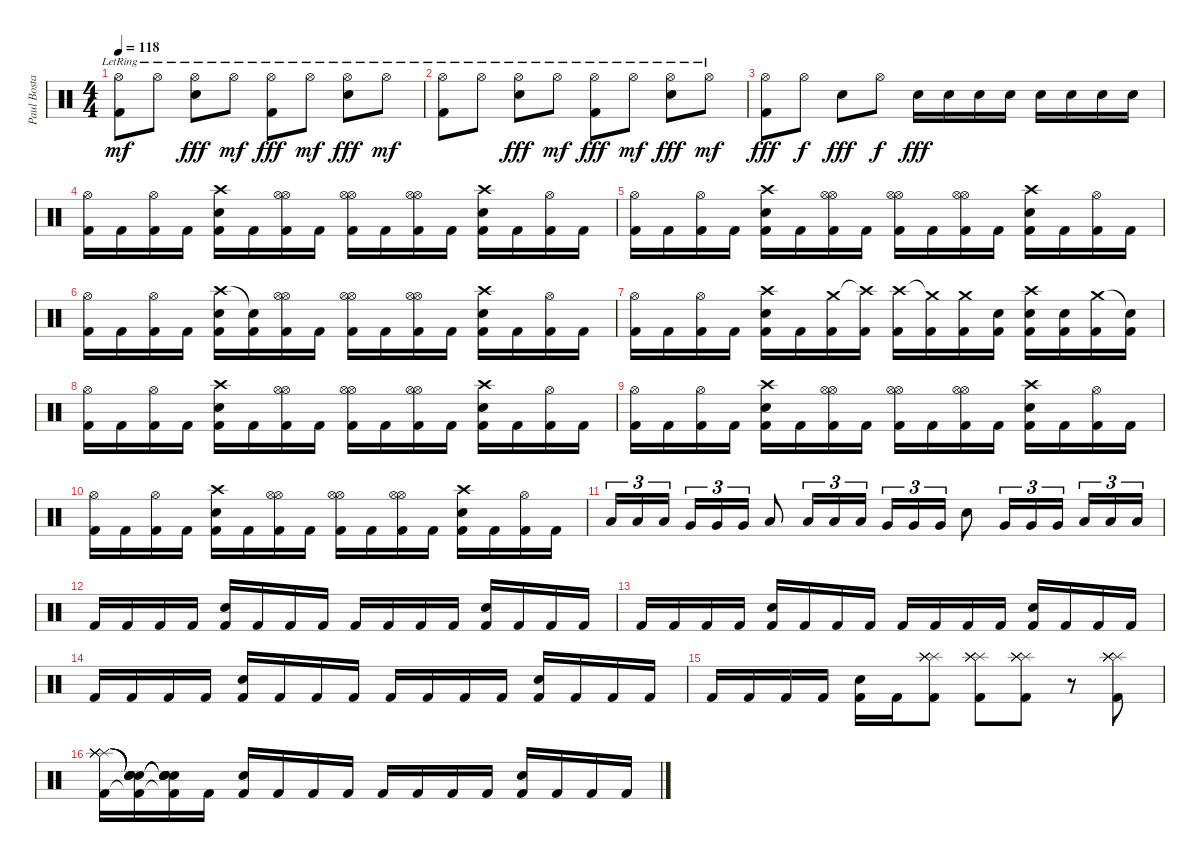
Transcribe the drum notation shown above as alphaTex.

\track ("Paul Bostaph" "Paul Bosta") {instrument percussion}
\staff {score}
\articulation defaults
\ts (4 4)
\tempo 118
\clef neutral
\ks c
("Kick (hit) 2" "Hi-Hat (open)"{lr}).8{dy mf} "Hi-Hat (open)"{lr}.8 ("Hi-Hat (open)"{lr} "Snare (hit) 2").8{dy fff} "Hi-Hat (open)"{lr}.8{dy mf} ("Hi-Hat (open)"{lr} "Kick (hit) 2").8{dy fff} "Hi-Hat (open)"{lr}.8{dy mf} ("Hi-Hat (open)"{lr} "Snare (hit) 2").8{dy fff} "Hi-Hat (open)"{lr}.8{dy mf} |
("Kick (hit) 2" "Hi-Hat (open)"{lr}).8 "Hi-Hat (open)"{lr}.8 ("Hi-Hat (open)"{lr} "Snare (hit) 2").8{dy fff} "Hi-Hat (open)"{lr}.8{dy mf} ("Hi-Hat (open)"{lr} "Kick (hit) 2").8{dy fff} "Hi-Hat (open)"{lr}.8{dy mf} ("Hi-Hat (open)"{lr} "Snare (hit) 2").8{dy fff} "Hi-Hat (open)"{lr}.8{dy mf} |
("Hi-Hat (open)" "Kick (hit) 2").8{dy fff} "Hi-Hat (open)".8{dy f} "Snare (hit) 2".8{dy fff} "Hi-Hat (open)".8{dy f} "Snare (hit) 2".16{dy fff} "Snare (hit) 2".16 "Snare (hit) 2".16 "Snare (hit) 2".16 "Snare (hit) 2".16 "Snare (hit) 2".16 "Snare (hit) 2".16 "Snare (hit) 2".16 |
("Hi-Hat (open)" "Kick (hit) 2").16 "Kick (hit) 2".16 ("Hi-Hat (open)" "Kick (hit) 2").16 "Kick (hit) 2".16 ("Crash high (hit)" "Snare (hit) 2" "Kick (hit) 2").16 "Kick (hit) 2".16 ("Hi-Hat (open)" "Hi-Hat (open)" "Kick (hit) 2").16 "Kick (hit) 2".16 ("Hi-Hat (open)" "Hi-Hat (open)" "Kick (hit) 2").16 "Kick (hit) 2".16 ("Hi-Hat (open)" "Hi-Hat (open)" "Kick (hit) 2").16 "Kick (hit) 2".16 ("Crash high (hit)" "Snare (hit) 2" "Kick (hit) 2").16 "Kick (hit) 2".16 ("Hi-Hat (open)" "Kick (hit) 2").16 "Kick (hit) 2".16 |
("Hi-Hat (open)" "Kick (hit) 2").16 "Kick (hit) 2".16 ("Hi-Hat (open)" "Kick (hit) 2").16 "Kick (hit) 2".16 ("Crash high (hit)" "Snare (hit) 2" "Kick (hit) 2").16 "Kick (hit) 2".16 ("Hi-Hat (open)" "Hi-Hat (open)" "Kick (hit) 2").16 "Kick (hit) 2".16 ("Hi-Hat (open)" "Hi-Hat (open)" "Kick (hit) 2").16 "Kick (hit) 2".16 ("Hi-Hat (open)" "Hi-Hat (open)" "Kick (hit) 2").16 "Kick (hit) 2".16 ("Crash high (hit)" "Snare (hit) 2" "Kick (hit) 2").16 "Kick (hit) 2".16 ("Hi-Hat (open)" "Kick (hit) 2").16 "Kick (hit) 2".16 |
("Hi-Hat (open)" "Kick (hit) 2").16 "Kick (hit) 2".16 ("Hi-Hat (open)" "Kick (hit) 2").16 "Kick (hit) 2".16 ("Crash high (hit)" "Snare (hit) 2" "Kick (hit) 2").16 ("Snare (hit)"{t} "Kick (hit) 2").16 ("Hi-Hat (open)" "Hi-Hat (open)" "Kick (hit) 2").16 "Kick (hit) 2".16 ("Hi-Hat (open)" "Hi-Hat (open)" "Kick (hit) 2").16 "Kick (hit) 2".16 ("Hi-Hat (open)" "Hi-Hat (open)" "Kick (hit) 2").16 "Kick (hit) 2".16 ("Crash high (hit)" "Snare (hit) 2" "Kick (hit) 2").16 "Kick (hit) 2".16 ("Hi-Hat (open)" "Kick (hit) 2").16 "Kick (hit) 2".16 |
("Hi-Hat (open)" "Kick (hit) 2").16 "Kick (hit) 2".16 ("Hi-Hat (open)" "Kick (hit) 2").16 "Kick (hit) 2".16 ("Crash high (hit)" "Snare (hit) 2" "Kick (hit) 2").16 "Kick (hit) 2".16 ("Crash medium (hit)" "Kick (hit) 2").16 ("Crash high (hit)"{t} "Kick (hit) 2").16 ("Crash high (hit)" "Kick (hit) 2").16 ("Crash medium (hit)"{t} "Kick (hit) 2").16 ("Crash medium (hit)" "Kick (hit) 2").16 ("Snare (hit) 2" "Kick (hit) 2").16 ("Crash high (hit)" "Snare (hit) 2" "Kick (hit) 2").16 ("Snare (hit) 2" "Kick (hit) 2").16 ("Crash medium (hit)" "Kick (hit) 2").16 ("Snare (hit)"{t} "Kick (hit) 2").16 |
("Hi-Hat (open)" "Kick (hit) 2").16 "Kick (hit) 2".16 ("Hi-Hat (open)" "Kick (hit) 2").16 "Kick (hit) 2".16 ("Crash high (hit)" "Snare (hit) 2" "Kick (hit) 2").16 "Kick (hit) 2".16 ("Hi-Hat (open)" "Hi-Hat (open)" "Kick (hit) 2").16 "Kick (hit) 2".16 ("Hi-Hat (open)" "Hi-Hat (open)" "Kick (hit) 2").16 "Kick (hit) 2".16 ("Hi-Hat (open)" "Hi-Hat (open)" "Kick (hit) 2").16 "Kick (hit) 2".16 ("Crash high (hit)" "Snare (hit) 2" "Kick (hit) 2").16 "Kick (hit) 2".16 ("Hi-Hat (open)" "Kick (hit) 2").16 "Kick (hit) 2".16 |
("Hi-Hat (open)" "Kick (hit) 2").16 "Kick (hit) 2".16 ("Hi-Hat (open)" "Kick (hit) 2").16 "Kick (hit) 2".16 ("Crash high (hit)" "Snare (hit) 2" "Kick (hit) 2").16 "Kick (hit) 2".16 ("Hi-Hat (open)" "Hi-Hat (open)" "Kick (hit) 2").16 "Kick (hit) 2".16 ("Hi-Hat (open)" "Hi-Hat (open)" "Kick (hit) 2").16 "Kick (hit) 2".16 ("Hi-Hat (open)" "Hi-Hat (open)" "Kick (hit) 2").16 "Kick (hit) 2".16 ("Crash high (hit)" "Snare (hit) 2" "Kick (hit) 2").16 "Kick (hit) 2".16 ("Hi-Hat (open)" "Kick (hit) 2").16 "Kick (hit) 2".16 |
("Hi-Hat (open)" "Kick (hit) 2").16 "Kick (hit) 2".16 ("Hi-Hat (open)" "Kick (hit) 2").16 "Kick (hit) 2".16 ("Crash high (hit)" "Snare (hit) 2" "Kick (hit) 2").16 "Kick (hit) 2".16 ("Hi-Hat (open)" "Hi-Hat (open)" "Kick (hit) 2").16 "Kick (hit) 2".16 ("Hi-Hat (open)" "Hi-Hat (open)" "Kick (hit) 2").16 "Kick (hit) 2".16 ("Hi-Hat (open)" "Hi-Hat (open)" "Kick (hit) 2").16 "Kick (hit) 2".16 ("Crash high (hit)" "Snare (hit) 2" "Kick (hit) 2").16 "Kick (hit) 2".16 ("Hi-Hat (open)" "Kick (hit) 2").16 "Kick (hit) 2".16 |
"Low Floor Tom (hit)".16{tu (3 2)} "Low Floor Tom (hit)".16{tu (3 2)} "Low Floor Tom (hit)".16{tu (3 2)} "Very Low Tom (hit)".16{tu (3 2)} "Very Low Tom (hit)".16{tu (3 2)} "Very Low Tom (hit)".16{tu (3 2)} "Low Tom (hit)".8 "Low Floor Tom (hit)".16{tu (3 2)} "Low Floor Tom (hit)".16{tu (3 2)} "Low Floor Tom (hit)".16{tu (3 2)} "Very Low Tom (hit)".16{tu (3 2)} "Very Low Tom (hit)".16{tu (3 2)} "Very Low Tom (hit)".16{tu (3 2)} "Snare (hit) 2".8 "Very Low Tom (hit)".16{tu (3 2)} "Very Low Tom (hit)".16{tu (3 2)} "Very Low Tom (hit)".16{tu (3 2)} "Low Floor Tom (hit)".16{tu (3 2)} "Low Floor Tom (hit)".16{tu (3 2)} "Low Floor Tom (hit)".16{tu (3 2)} |
"Kick (hit) 2".16 "Kick (hit) 2".16 "Kick (hit) 2".16 "Kick (hit) 2".16 ("Snare (hit) 2" "Kick (hit) 2").16 "Kick (hit) 2".16 "Kick (hit) 2".16 "Kick (hit) 2".16 "Kick (hit) 2".16 "Kick (hit) 2".16 "Kick (hit) 2".16 "Kick (hit) 2".16 ("Snare (hit) 2" "Kick (hit) 2").16 "Kick (hit) 2".16 "Kick (hit) 2".16 "Kick (hit) 2".16 |
"Kick (hit) 2".16 "Kick (hit) 2".16 "Kick (hit) 2".16 "Kick (hit) 2".16 ("Snare (hit) 2" "Kick (hit) 2").16 "Kick (hit) 2".16 "Kick (hit) 2".16 "Kick (hit) 2".16 "Kick (hit) 2".16 "Kick (hit) 2".16 "Kick (hit) 2".16 "Kick (hit) 2".16 ("Snare (hit) 2" "Kick (hit) 2").16 "Kick (hit) 2".16 "Kick (hit) 2".16 "Kick (hit) 2".16 |
"Kick (hit) 2".16 "Kick (hit) 2".16 "Kick (hit) 2".16 "Kick (hit) 2".16 ("Snare (hit) 2" "Kick (hit) 2").16 "Kick (hit) 2".16 "Kick (hit) 2".16 "Kick (hit) 2".16 "Kick (hit) 2".16 "Kick (hit) 2".16 "Kick (hit) 2".16 "Kick (hit) 2".16 ("Snare (hit) 2" "Kick (hit) 2").16 "Kick (hit) 2".16 "Kick (hit) 2".16 "Kick (hit) 2".16 |
"Kick (hit) 2".16 "Kick (hit) 2".16 "Kick (hit) 2".16 "Kick (hit) 2".16 ("Snare (hit) 2" "Kick (hit) 2").16 "Kick (hit) 2".16 ("Splash (hit)" "Splash (hit)" "Splash (hit)" "Splash (hit)" "Splash (hit)" "Kick (hit) 2").8 ("Splash (hit)" "Splash (hit)" "Splash (hit)" "Splash (hit)" "Splash (hit)" "Kick (hit) 2").8 ("Splash (hit)" "Splash (hit)" "Splash (hit)" "Splash (hit)" "Splash (hit)" "Kick (hit) 2").8 r.8 ("Splash (hit)" "Splash (hit)" "Splash (hit)" "Splash (hit)" "Splash (hit)" "Kick (hit) 2").8 |
("Splash (hit)" "Splash (hit)" "Splash (hit)" "Splash (hit)" "Splash (hit)" "Kick (hit) 2").16 ("Snare (hit)"{t} "Snare (hit)"{t} "Snare (hit)"{t} "Snare (hit)"{t} "Snare (hit)"{t} "Kick (hit) 2"{t}).16 ("Snare (hit)"{t} "Snare (hit)"{t} "Snare (hit)"{t} "Snare (hit)"{t} "Snare (hit)"{t} "Kick (hit) 2"{t}).16 "Kick (hit) 2".16 ("Snare (hit) 2" "Kick (hit) 2").16 "Kick (hit) 2".16 "Kick (hit) 2".16 "Kick (hit) 2".16 "Kick (hit) 2".16 "Kick (hit) 2".16 "Kick (hit) 2".16 "Kick (hit) 2".16 ("Snare (hit) 2" "Kick (hit) 2").16 "Kick (hit) 2".16 "Kick (hit) 2".16 "Kick (hit) 2".16
